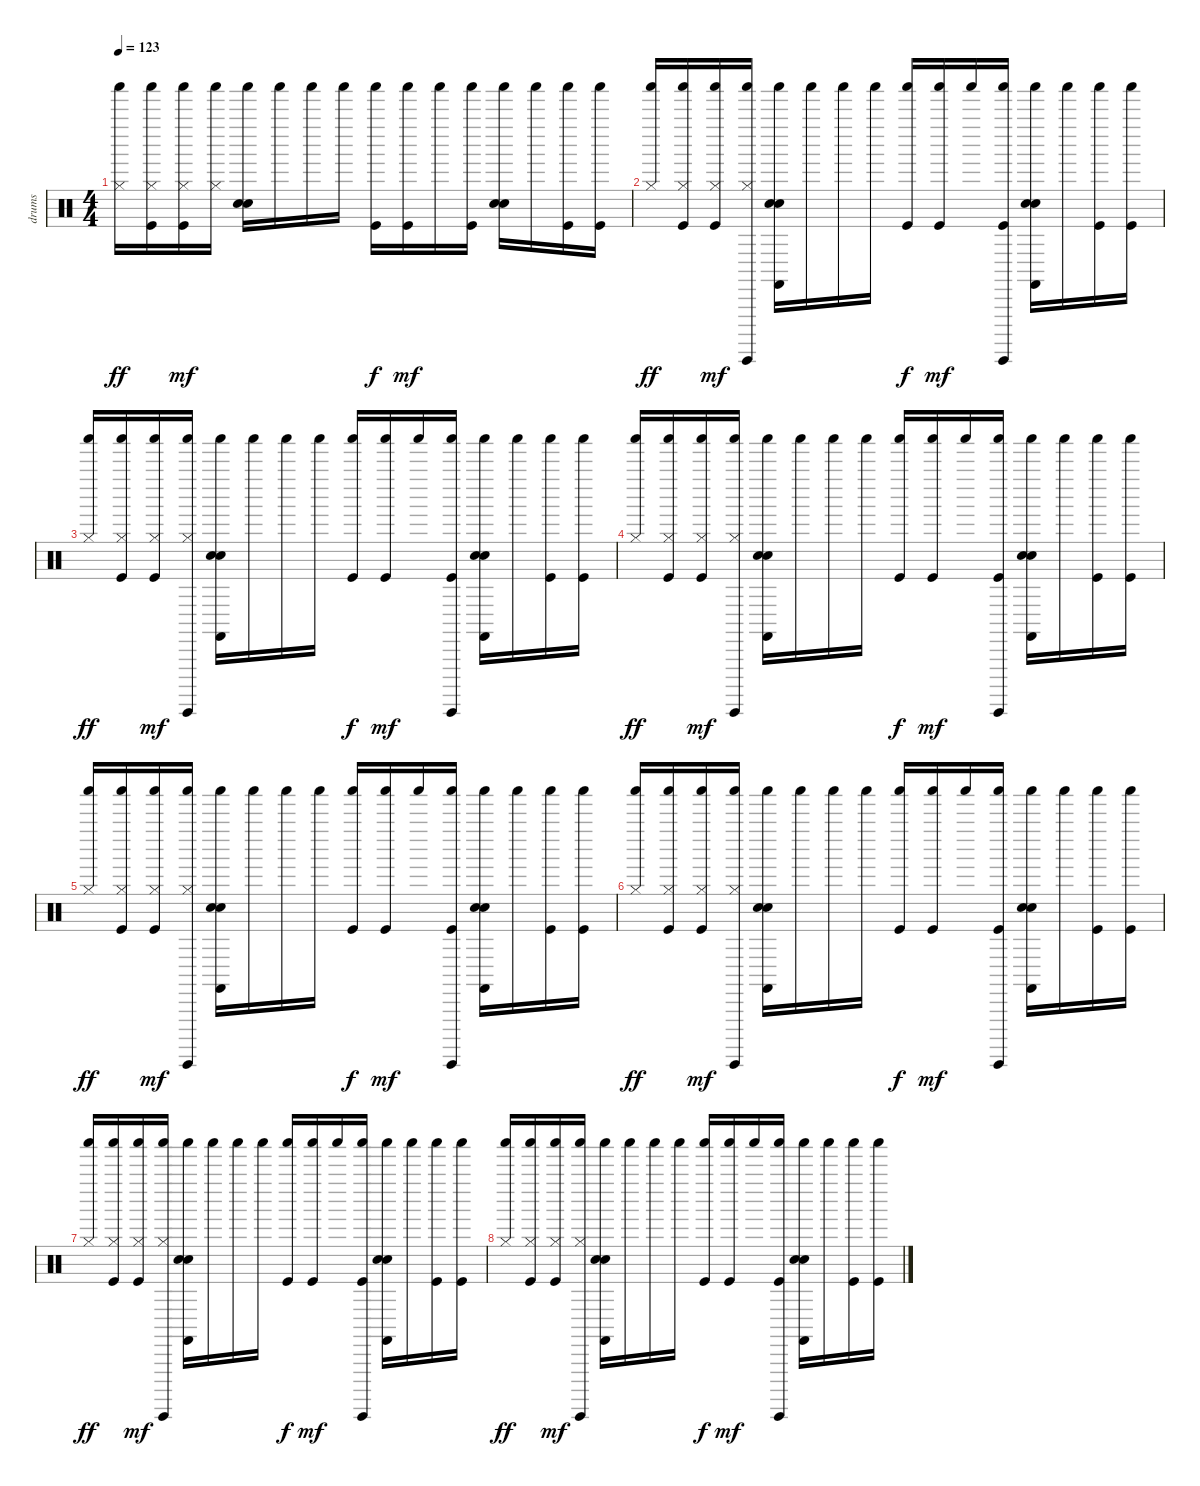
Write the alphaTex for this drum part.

\track ("drums" "drums") {instrument percussion}
\staff {score}
\articulation defaults
\ts (4 4)
\tempo 123
\clef neutral
\ks c
("Shaker (hit)" "Hi-Hat (closed)").16{dy ff} ("Shaker (hit)" "Hi-Hat (closed)" "Kick (hit)").16 ("Shaker (hit)" "Hi-Hat (closed)" "Kick (hit)").16{dy mf} ("Shaker (hit)" "Hi-Hat (closed)").16 ("Shaker (hit)" "Electric Snare (hit)" "Hand Clap (hit)").16 "Shaker (hit)".16 "Shaker (hit)".16 "Shaker (hit)".16 ("Shaker (hit)" "Kick (hit)").16{dy f} ("Shaker (hit)" "Kick (hit)").16{dy mf} "Shaker (hit)".16 ("Shaker (hit)" "Kick (hit)").16 ("Shaker (hit)" "Electric Snare (hit)" "Hand Clap (hit)").16 "Shaker (hit)".16 ("Shaker (hit)" "Kick (hit)").16 ("Shaker (hit)" "Kick (hit)").16 |
("Shaker (hit)" "Hi-Hat (closed)").16{dy ff} ("Shaker (hit)" "Hi-Hat (closed)" "Kick (hit)").16 ("Shaker (hit)" "Hi-Hat (closed)" "Kick (hit)").16{dy mf} ("Shaker (hit)" "Hi-Hat (closed)" "Guiro (hit)").16 ("Shaker (hit)" "Electric Snare (hit)" "Hand Clap (hit)" "Castanets (hit)").16 "Shaker (hit)".16 "Shaker (hit)".16 "Shaker (hit)".16 ("Shaker (hit)" "Kick (hit)").16{dy f} ("Shaker (hit)" "Kick (hit)").16{dy mf} "Shaker (hit)".16 ("Shaker (hit)" "Guiro (hit)" "Kick (hit)").16 ("Shaker (hit)" "Electric Snare (hit)" "Hand Clap (hit)" "Castanets (hit)").16 "Shaker (hit)".16 ("Shaker (hit)" "Kick (hit)").16 ("Shaker (hit)" "Kick (hit)").16 |
("Shaker (hit)" "Hi-Hat (closed)").16{dy ff} ("Shaker (hit)" "Hi-Hat (closed)" "Kick (hit)").16 ("Shaker (hit)" "Hi-Hat (closed)" "Kick (hit)").16{dy mf} ("Shaker (hit)" "Hi-Hat (closed)" "Guiro (hit)").16 ("Shaker (hit)" "Electric Snare (hit)" "Hand Clap (hit)" "Castanets (hit)").16 "Shaker (hit)".16 "Shaker (hit)".16 "Shaker (hit)".16 ("Shaker (hit)" "Kick (hit)").16{dy f} ("Shaker (hit)" "Kick (hit)").16{dy mf} "Shaker (hit)".16 ("Shaker (hit)" "Guiro (hit)" "Kick (hit)").16 ("Shaker (hit)" "Electric Snare (hit)" "Hand Clap (hit)" "Castanets (hit)").16 "Shaker (hit)".16 ("Shaker (hit)" "Kick (hit)").16 ("Shaker (hit)" "Kick (hit)").16 |
("Shaker (hit)" "Hi-Hat (closed)").16{dy ff} ("Shaker (hit)" "Hi-Hat (closed)" "Kick (hit)").16 ("Shaker (hit)" "Hi-Hat (closed)" "Kick (hit)").16{dy mf} ("Shaker (hit)" "Hi-Hat (closed)" "Guiro (hit)").16 ("Shaker (hit)" "Electric Snare (hit)" "Hand Clap (hit)" "Castanets (hit)").16 "Shaker (hit)".16 "Shaker (hit)".16 "Shaker (hit)".16 ("Shaker (hit)" "Kick (hit)").16{dy f} ("Shaker (hit)" "Kick (hit)").16{dy mf} "Shaker (hit)".16 ("Shaker (hit)" "Guiro (hit)" "Kick (hit)").16 ("Shaker (hit)" "Electric Snare (hit)" "Hand Clap (hit)" "Castanets (hit)").16 "Shaker (hit)".16 ("Shaker (hit)" "Kick (hit)").16 ("Shaker (hit)" "Kick (hit)").16 |
("Shaker (hit)" "Hi-Hat (closed)").16{dy ff} ("Shaker (hit)" "Hi-Hat (closed)" "Kick (hit)").16 ("Shaker (hit)" "Hi-Hat (closed)" "Kick (hit)").16{dy mf} ("Shaker (hit)" "Hi-Hat (closed)" "Guiro (hit)").16 ("Shaker (hit)" "Electric Snare (hit)" "Hand Clap (hit)" "Castanets (hit)").16 "Shaker (hit)".16 "Shaker (hit)".16 "Shaker (hit)".16 ("Shaker (hit)" "Kick (hit)").16{dy f} ("Shaker (hit)" "Kick (hit)").16{dy mf} "Shaker (hit)".16 ("Shaker (hit)" "Guiro (hit)" "Kick (hit)").16 ("Shaker (hit)" "Electric Snare (hit)" "Hand Clap (hit)" "Castanets (hit)").16 "Shaker (hit)".16 ("Shaker (hit)" "Kick (hit)").16 ("Shaker (hit)" "Kick (hit)").16 |
("Shaker (hit)" "Hi-Hat (closed)").16{dy ff} ("Shaker (hit)" "Hi-Hat (closed)" "Kick (hit)").16 ("Shaker (hit)" "Hi-Hat (closed)" "Kick (hit)").16{dy mf} ("Shaker (hit)" "Hi-Hat (closed)" "Guiro (hit)").16 ("Shaker (hit)" "Electric Snare (hit)" "Hand Clap (hit)" "Castanets (hit)").16 "Shaker (hit)".16 "Shaker (hit)".16 "Shaker (hit)".16 ("Shaker (hit)" "Kick (hit)").16{dy f} ("Shaker (hit)" "Kick (hit)").16{dy mf} "Shaker (hit)".16 ("Shaker (hit)" "Guiro (hit)" "Kick (hit)").16 ("Shaker (hit)" "Electric Snare (hit)" "Hand Clap (hit)" "Castanets (hit)").16 "Shaker (hit)".16 ("Shaker (hit)" "Kick (hit)").16 ("Shaker (hit)" "Kick (hit)").16 |
("Shaker (hit)" "Hi-Hat (closed)").16{dy ff} ("Shaker (hit)" "Hi-Hat (closed)" "Kick (hit)").16 ("Shaker (hit)" "Hi-Hat (closed)" "Kick (hit)").16{dy mf} ("Shaker (hit)" "Hi-Hat (closed)" "Guiro (hit)").16 ("Shaker (hit)" "Electric Snare (hit)" "Hand Clap (hit)" "Castanets (hit)").16 "Shaker (hit)".16 "Shaker (hit)".16 "Shaker (hit)".16 ("Shaker (hit)" "Kick (hit)").16{dy f} ("Shaker (hit)" "Kick (hit)").16{dy mf} "Shaker (hit)".16 ("Shaker (hit)" "Guiro (hit)" "Kick (hit)").16 ("Shaker (hit)" "Electric Snare (hit)" "Hand Clap (hit)" "Castanets (hit)").16 "Shaker (hit)".16 ("Shaker (hit)" "Kick (hit)").16 ("Shaker (hit)" "Kick (hit)").16 |
("Shaker (hit)" "Hi-Hat (closed)").16{dy ff} ("Shaker (hit)" "Hi-Hat (closed)" "Kick (hit)").16 ("Shaker (hit)" "Hi-Hat (closed)" "Kick (hit)").16{dy mf} ("Shaker (hit)" "Hi-Hat (closed)" "Guiro (hit)").16 ("Shaker (hit)" "Electric Snare (hit)" "Hand Clap (hit)" "Castanets (hit)").16 "Shaker (hit)".16 "Shaker (hit)".16 "Shaker (hit)".16 ("Shaker (hit)" "Kick (hit)").16{dy f} ("Shaker (hit)" "Kick (hit)").16{dy mf} "Shaker (hit)".16 ("Shaker (hit)" "Guiro (hit)" "Kick (hit)").16 ("Shaker (hit)" "Electric Snare (hit)" "Hand Clap (hit)" "Castanets (hit)").16 "Shaker (hit)".16 ("Shaker (hit)" "Kick (hit)").16 ("Shaker (hit)" "Kick (hit)").16
